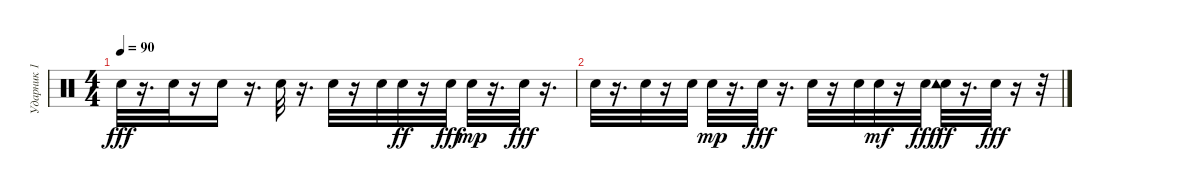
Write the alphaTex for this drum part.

\track ("Ударник 1" "Ударник 1") {instrument percussion}
\staff {score}
\articulation defaults
\ts (4 4)
\tempo 90
\clef neutral
\ks c "Snare (hit)".32{dy fff volume 5}
r.16{d} "Snare (hit)".32{volume 5} r.16 "Snare (hit)".16{volume 4} r.16{d} "Snare (hit)".32{volume 4} r.16{d} "Snare (hit)".32{volume 4} r.16 "Snare (hit)".32{volume 4} "Snare (hit)".32{dy ff} r.16 "Snare (hit)".32{dy fff volume 3} "Snare (hit)".32{dy mp volume 3} r.16{d} "Snare (hit)".32{dy fff volume 3} r.16{d} |
"Snare (hit)".32{volume 3} r.16{d} "Snare (hit)".32{volume 2} r.16 "Snare (hit)".32{volume 2} "Snare (hit)".32{dy mp volume 2} r.16{d} "Snare (hit)".32{dy fff volume 2} r.16{d} "Snare (hit)".32{volume 2} r.16 "Snare (hit)".32{volume 1} "Snare (hit)".32{dy mf volume 1} r.16 "Snare (hit)".32{dy fff volume 1} ("Snare (hit)" "Tambourine (hit)").32{dy ff volume 1} r.16{d} "Snare (hit)".32{dy fff volume 1} r.16 r.32
